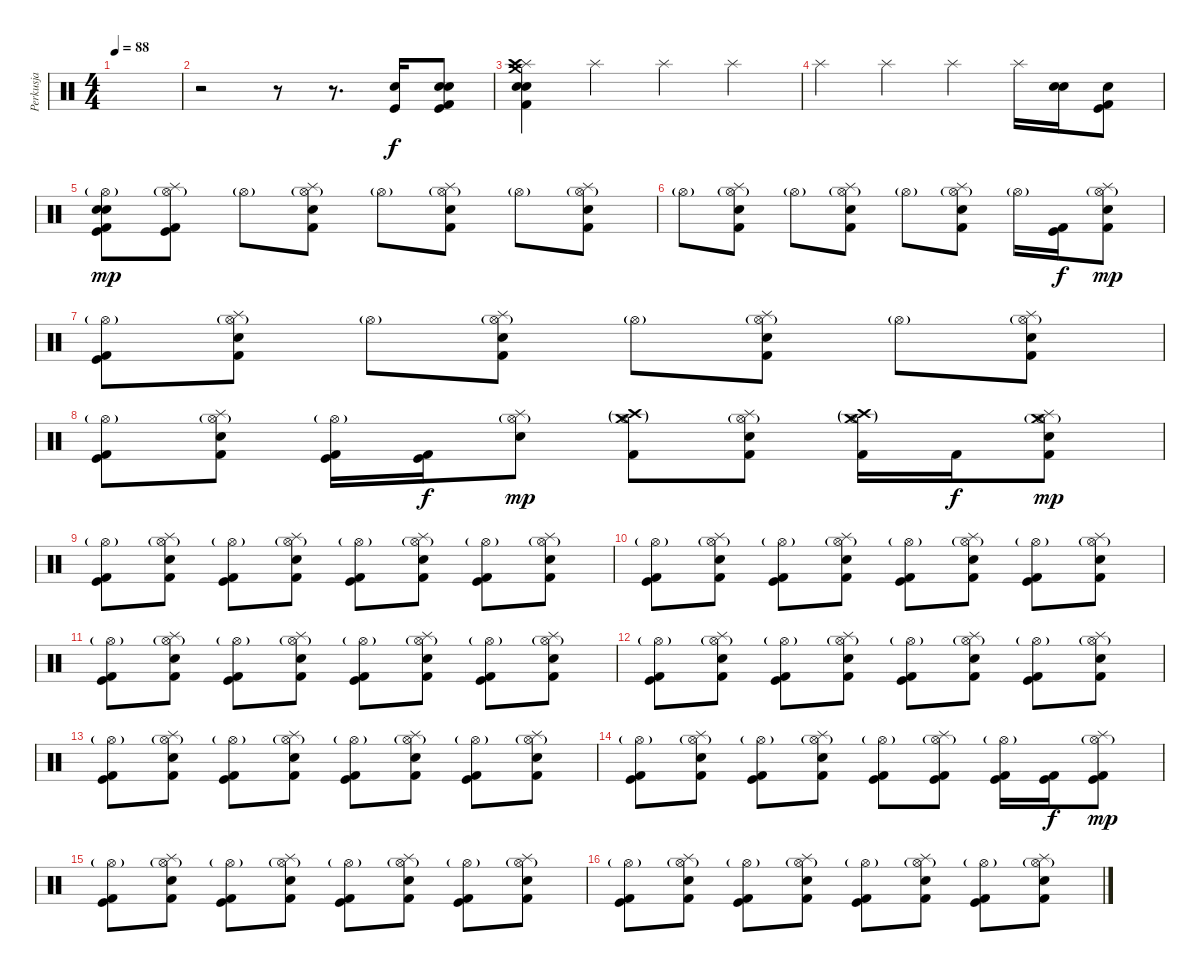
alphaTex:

\track ("Perkusja" "Perkusja") {instrument percussion}
\staff {score}
\articulation defaults
\ts (4 4)
\tempo 88
\clef neutral
\ks c
|
r.2 r.8 r.8{d} ("Kick (hit)" "Snare (hit) 2").16 ("Electric Snare (hit)" "Kick (hit)" "Snare (hit) 2" "Kick (hit) 2").8 |
("Splash (hit)" "Crash high (hit)" "Crash medium (hit)" "Snare (hit) 2" "Electric Snare (hit)" "Kick (hit) 2").4 "Splash (hit)".4 "Splash (hit)".4 "Splash (hit)".4 |
"Splash (hit)".4 "Splash (hit)".4 "Splash (hit)".4 "Splash (hit)".16 ("Electric Snare (hit)" "Snare (hit) 2").16 ("Kick (hit)" "Snare (hit) 2" "Kick (hit) 2").8 |
("Hi-Hat (open)"{g} "Kick (hit)" "Snare (hit) 2" "Electric Snare (hit)" "Kick (hit) 2").8{dy mp} ("Hi-Hat (open)"{g} "Splash (hit)" "Kick (hit) 2" "Kick (hit)").8 "Hi-Hat (open)"{g}.8 ("Hi-Hat (open)"{g} "Splash (hit)" "Electric Snare (hit)" "Kick (hit) 2").8 "Hi-Hat (open)"{g}.8 ("Hi-Hat (open)"{g} "Splash (hit)" "Electric Snare (hit)" "Kick (hit) 2").8 "Hi-Hat (open)"{g}.8 ("Hi-Hat (open)"{g} "Splash (hit)" "Electric Snare (hit)" "Kick (hit) 2").8 |
"Hi-Hat (open)"{g}.8 ("Hi-Hat (open)"{g} "Splash (hit)" "Electric Snare (hit)" "Kick (hit) 2").8 "Hi-Hat (open)"{g}.8 ("Hi-Hat (open)"{g} "Splash (hit)" "Electric Snare (hit)" "Kick (hit) 2").8 "Hi-Hat (open)"{g}.8 ("Hi-Hat (open)"{g} "Splash (hit)" "Electric Snare (hit)" "Kick (hit) 2").8 "Hi-Hat (open)"{g}.16 ("Kick (hit)" "Kick (hit) 2").16{dy f} ("Hi-Hat (open)"{g} "Splash (hit)" "Electric Snare (hit)" "Kick (hit) 2").8{dy mp} |
("Hi-Hat (open)"{g} "Kick (hit)" "Kick (hit) 2").8 ("Hi-Hat (open)"{g} "Splash (hit)" "Electric Snare (hit)" "Kick (hit) 2").8 "Hi-Hat (open)"{g}.8 ("Hi-Hat (open)"{g} "Splash (hit)" "Electric Snare (hit)" "Kick (hit) 2").8 "Hi-Hat (open)"{g}.8 ("Hi-Hat (open)"{g} "Splash (hit)" "Electric Snare (hit)" "Kick (hit) 2").8 "Hi-Hat (open)"{g}.8 ("Hi-Hat (open)"{g} "Splash (hit)" "Electric Snare (hit)" "Kick (hit) 2").8 |
("Hi-Hat (open)"{g} "Kick (hit)" "Kick (hit) 2").8 ("Hi-Hat (open)"{g} "Splash (hit)" "Electric Snare (hit)" "Kick (hit) 2").8 ("Hi-Hat (open)"{g} "Kick (hit)" "Kick (hit) 2").16 ("Kick (hit)" "Kick (hit) 2").16{dy f} ("Hi-Hat (open)"{g} "Splash (hit)" "Electric Snare (hit)").8{dy mp} ("Hi-Hat (open)"{g} "Crash high (hit)"{g} "Crash medium (hit)"{g} "Kick (hit) 2").8 ("Hi-Hat (open)"{g} "Splash (hit)" "Electric Snare (hit)" "Kick (hit) 2").8 ("Hi-Hat (open)"{g} "Crash high (hit)"{g} "Crash medium (hit)"{g} "Kick (hit) 2").16 "Kick (hit) 2".16{dy f} ("Hi-Hat (open)"{g} "Crash medium (hit)"{g} "Splash (hit)" "Electric Snare (hit)" "Kick (hit) 2").8{dy mp} |
("Hi-Hat (open)"{g} "Kick (hit)" "Kick (hit) 2").8 ("Hi-Hat (open)"{g} "Splash (hit)" "Electric Snare (hit)" "Kick (hit) 2").8 ("Hi-Hat (open)"{g} "Kick (hit)" "Kick (hit) 2").8 ("Hi-Hat (open)"{g} "Splash (hit)" "Electric Snare (hit)" "Kick (hit) 2").8 ("Hi-Hat (open)"{g} "Kick (hit)" "Kick (hit) 2").8 ("Hi-Hat (open)"{g} "Splash (hit)" "Electric Snare (hit)" "Kick (hit) 2").8 ("Hi-Hat (open)"{g} "Kick (hit)" "Kick (hit) 2").8 ("Hi-Hat (open)"{g} "Splash (hit)" "Electric Snare (hit)" "Kick (hit) 2").8 |
("Hi-Hat (open)"{g} "Kick (hit)" "Kick (hit) 2").8 ("Hi-Hat (open)"{g} "Splash (hit)" "Electric Snare (hit)" "Kick (hit) 2").8 ("Hi-Hat (open)"{g} "Kick (hit)" "Kick (hit) 2").8 ("Hi-Hat (open)"{g} "Splash (hit)" "Electric Snare (hit)" "Kick (hit) 2").8 ("Hi-Hat (open)"{g} "Kick (hit)" "Kick (hit) 2").8 ("Hi-Hat (open)"{g} "Splash (hit)" "Electric Snare (hit)" "Kick (hit) 2").8 ("Hi-Hat (open)"{g} "Kick (hit)" "Kick (hit) 2").8 ("Hi-Hat (open)"{g} "Splash (hit)" "Electric Snare (hit)" "Kick (hit) 2").8 |
("Hi-Hat (open)"{g} "Kick (hit)" "Kick (hit) 2").8 ("Hi-Hat (open)"{g} "Splash (hit)" "Electric Snare (hit)" "Kick (hit) 2").8 ("Hi-Hat (open)"{g} "Kick (hit)" "Kick (hit) 2").8 ("Hi-Hat (open)"{g} "Splash (hit)" "Electric Snare (hit)" "Kick (hit) 2").8 ("Hi-Hat (open)"{g} "Kick (hit)" "Kick (hit) 2").8 ("Hi-Hat (open)"{g} "Splash (hit)" "Electric Snare (hit)" "Kick (hit) 2").8 ("Hi-Hat (open)"{g} "Kick (hit)" "Kick (hit) 2").8 ("Hi-Hat (open)"{g} "Splash (hit)" "Electric Snare (hit)" "Kick (hit) 2").8 |
("Hi-Hat (open)"{g} "Kick (hit)" "Kick (hit) 2").8 ("Hi-Hat (open)"{g} "Splash (hit)" "Electric Snare (hit)" "Kick (hit) 2").8 ("Hi-Hat (open)"{g} "Kick (hit)" "Kick (hit) 2").8 ("Hi-Hat (open)"{g} "Splash (hit)" "Electric Snare (hit)" "Kick (hit) 2").8 ("Hi-Hat (open)"{g} "Kick (hit)" "Kick (hit) 2").8 ("Hi-Hat (open)"{g} "Splash (hit)" "Electric Snare (hit)" "Kick (hit) 2").8 ("Hi-Hat (open)"{g} "Kick (hit)" "Kick (hit) 2").8 ("Hi-Hat (open)"{g} "Splash (hit)" "Electric Snare (hit)" "Kick (hit) 2").8 |
("Hi-Hat (open)"{g} "Kick (hit)" "Kick (hit) 2").8 ("Hi-Hat (open)"{g} "Splash (hit)" "Electric Snare (hit)" "Kick (hit) 2").8 ("Hi-Hat (open)"{g} "Kick (hit)" "Kick (hit) 2").8 ("Hi-Hat (open)"{g} "Splash (hit)" "Electric Snare (hit)" "Kick (hit) 2").8 ("Hi-Hat (open)"{g} "Kick (hit)" "Kick (hit) 2").8 ("Hi-Hat (open)"{g} "Splash (hit)" "Electric Snare (hit)" "Kick (hit) 2").8 ("Hi-Hat (open)"{g} "Kick (hit)" "Kick (hit) 2").8 ("Hi-Hat (open)"{g} "Splash (hit)" "Electric Snare (hit)" "Kick (hit) 2").8 |
("Hi-Hat (open)"{g} "Kick (hit)" "Kick (hit) 2").8 ("Hi-Hat (open)"{g} "Splash (hit)" "Electric Snare (hit)" "Kick (hit) 2").8 ("Hi-Hat (open)"{g} "Kick (hit)" "Kick (hit) 2").8 ("Hi-Hat (open)"{g} "Splash (hit)" "Electric Snare (hit)" "Kick (hit) 2").8 ("Hi-Hat (open)"{g} "Kick (hit)" "Kick (hit) 2").8 ("Hi-Hat (open)"{g} "Splash (hit)" "Kick (hit)" "Kick (hit) 2").8 ("Hi-Hat (open)"{g} "Kick (hit)" "Kick (hit) 2").16 ("Kick (hit)" "Kick (hit) 2").16{dy f} ("Hi-Hat (open)"{g} "Splash (hit)" "Kick (hit)" "Kick (hit) 2").8{dy mp} |
("Hi-Hat (open)"{g} "Kick (hit)" "Kick (hit) 2").8 ("Hi-Hat (open)"{g} "Splash (hit)" "Electric Snare (hit)" "Kick (hit) 2").8 ("Hi-Hat (open)"{g} "Kick (hit)" "Kick (hit) 2").8 ("Hi-Hat (open)"{g} "Splash (hit)" "Electric Snare (hit)" "Kick (hit) 2").8 ("Hi-Hat (open)"{g} "Kick (hit)" "Kick (hit) 2").8 ("Hi-Hat (open)"{g} "Splash (hit)" "Electric Snare (hit)" "Kick (hit) 2").8 ("Hi-Hat (open)"{g} "Kick (hit)" "Kick (hit) 2").8 ("Hi-Hat (open)"{g} "Splash (hit)" "Electric Snare (hit)" "Kick (hit) 2").8 |
("Hi-Hat (open)"{g} "Kick (hit)" "Kick (hit) 2").8 ("Hi-Hat (open)"{g} "Splash (hit)" "Electric Snare (hit)" "Kick (hit) 2").8 ("Hi-Hat (open)"{g} "Kick (hit)" "Kick (hit) 2").8 ("Hi-Hat (open)"{g} "Splash (hit)" "Electric Snare (hit)" "Kick (hit) 2").8 ("Hi-Hat (open)"{g} "Kick (hit)" "Kick (hit) 2").8 ("Hi-Hat (open)"{g} "Splash (hit)" "Electric Snare (hit)" "Kick (hit) 2").8 ("Hi-Hat (open)"{g} "Kick (hit)" "Kick (hit) 2").8 ("Hi-Hat (open)"{g} "Splash (hit)" "Electric Snare (hit)" "Kick (hit) 2").8
